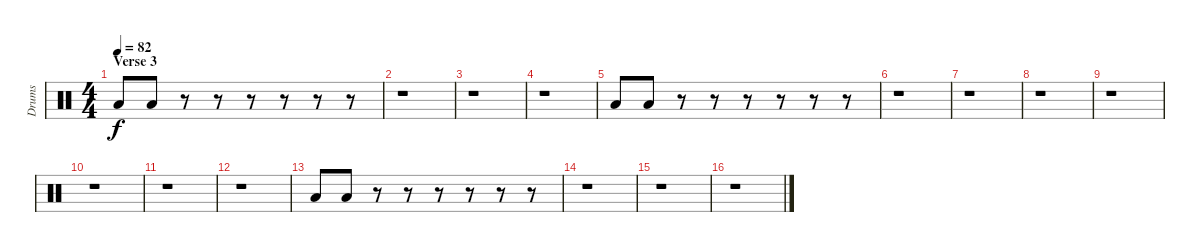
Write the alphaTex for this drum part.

\track ("Drums" "Drums") {instrument percussion}
\staff {score}
\articulation defaults
\ts (4 4)
\section ("" "Verse 3")
\tempo 82
\clef neutral
\ks c "Low Floor Tom (hit)".8{dy f} "Low Floor Tom (hit)".8
r.8 r.8 r.8 r.8 r.8 r.8 |
r.1 |
r.1 |
r.1 |
"Low Floor Tom (hit)".8 "Low Floor Tom (hit)".8 r.8 r.8 r.8 r.8 r.8 r.8 |
r.1 |
r.1 |
r.1 |
r.1 |
r.1 |
r.1 |
r.1 |
"Low Floor Tom (hit)".8 "Low Floor Tom (hit)".8 r.8 r.8 r.8 r.8 r.8 r.8 |
r.1 |
r.1 |
r.1
